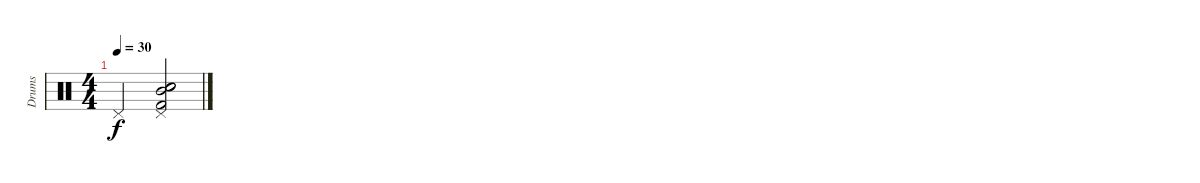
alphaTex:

\track ("Drums" "Drums") {instrument percussion}
\staff {score}
\articulation defaults
\ts (4 4)
\tempo 30
\clef neutral
\ks c "Pedal Hi-Hat (hit)".2{dy f}
("Kick (hit) 2" "Snare (hit) 2" "Pedal Hi-Hat (hit)" "Mid Tom (hit)" "Hand Clap (hit)").2
